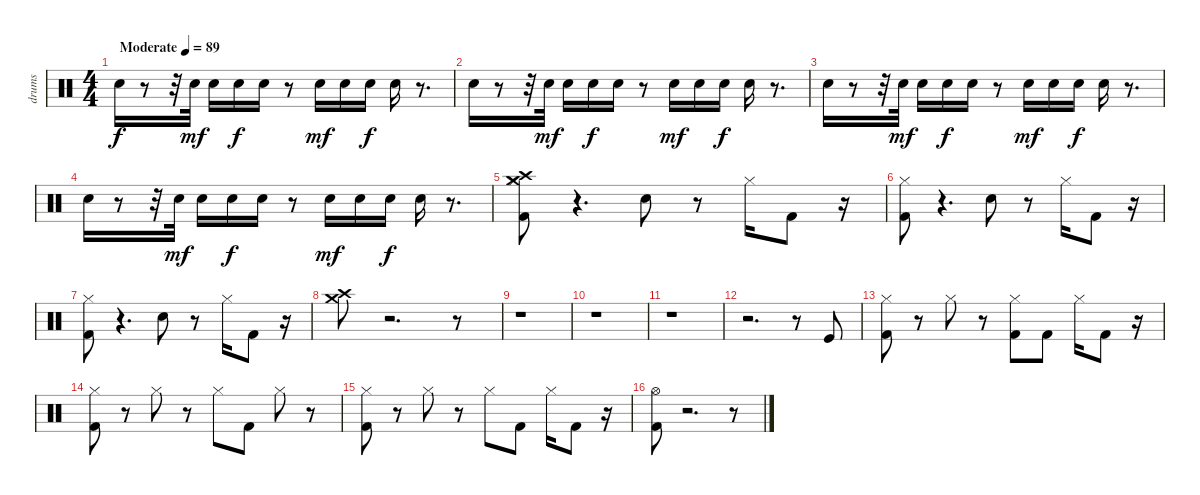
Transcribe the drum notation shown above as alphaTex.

\track ("drums" "drums") {instrument percussion}
\staff {score}
\articulation defaults
\ts (4 4)
\tempo (89 "Moderate")
\clef neutral
\ks c "Electric Snare (hit)".16{dy f}
r.8 r.32 "Electric Snare (hit)".32{dy mf} "Electric Snare (hit)".16 "Electric Snare (hit)".16{dy f} "Electric Snare (hit)".16 r.8 "Electric Snare (hit)".16{dy mf} "Electric Snare (hit)".16 "Electric Snare (hit)".16{dy f} "Electric Snare (hit)".16 r.8{d} |
"Electric Snare (hit)".16 r.8 r.32 "Electric Snare (hit)".32{dy mf} "Electric Snare (hit)".16 "Electric Snare (hit)".16{dy f} "Electric Snare (hit)".16 r.8 "Electric Snare (hit)".16{dy mf} "Electric Snare (hit)".16 "Electric Snare (hit)".16{dy f} "Electric Snare (hit)".16 r.8{d} |
"Electric Snare (hit)".16 r.8 r.32 "Electric Snare (hit)".32{dy mf} "Electric Snare (hit)".16 "Electric Snare (hit)".16{dy f} "Electric Snare (hit)".16 r.8 "Electric Snare (hit)".16{dy mf} "Electric Snare (hit)".16 "Electric Snare (hit)".16{dy f} "Electric Snare (hit)".16 r.8{d} |
"Electric Snare (hit)".16 r.8 r.32 "Electric Snare (hit)".32{dy mf} "Electric Snare (hit)".16 "Electric Snare (hit)".16{dy f} "Electric Snare (hit)".16 r.8 "Electric Snare (hit)".16{dy mf} "Electric Snare (hit)".16 "Electric Snare (hit)".16{dy f} "Electric Snare (hit)".16 r.8{d} |
("Crash medium (hit)" "Crash high (hit)" "Hi-Hat (closed)" "Kick (hit) 2").8 r.4{d} "Hand Clap (hit)".8 r.8 "Hi-Hat (closed)".16 "Kick (hit) 2".8 r.16 |
("Hi-Hat (closed)" "Kick (hit) 2").8 r.4{d} "Hand Clap (hit)".8 r.8 "Hi-Hat (closed)".16 "Kick (hit) 2".8 r.16 |
("Hi-Hat (closed)" "Kick (hit) 2").8 r.4{d} "Hand Clap (hit)".8 r.8 "Hi-Hat (closed)".16 "Kick (hit) 2".8 r.16 |
("Crash medium (hit)" "Crash high (hit)").8 r.2{d} r.8 |
r.1 |
r.1 |
r.1 |
r.2{d} r.8 "Kick (hit)".8 |
("Kick (hit) 2" "Hi-Hat (closed)").8 r.8 "Hi-Hat (closed)".8 r.8 ("Hi-Hat (closed)" "Kick (hit) 2").8 "Kick (hit) 2".8 "Hi-Hat (closed)".16 "Kick (hit) 2".8 r.16 |
("Kick (hit) 2" "Hi-Hat (closed)").8 r.8 "Hi-Hat (closed)".8 r.8 "Hi-Hat (closed)".8 "Kick (hit) 2".8 "Hi-Hat (closed)".8 r.8 |
("Kick (hit) 2" "Hi-Hat (closed)").8 r.8 "Hi-Hat (closed)".8 r.8 "Hi-Hat (closed)".8 "Kick (hit) 2".8 "Hi-Hat (closed)".16 "Kick (hit) 2".8 r.16 |
("Kick (hit) 2" "Hi-Hat (open)").8 r.2{d} r.8
